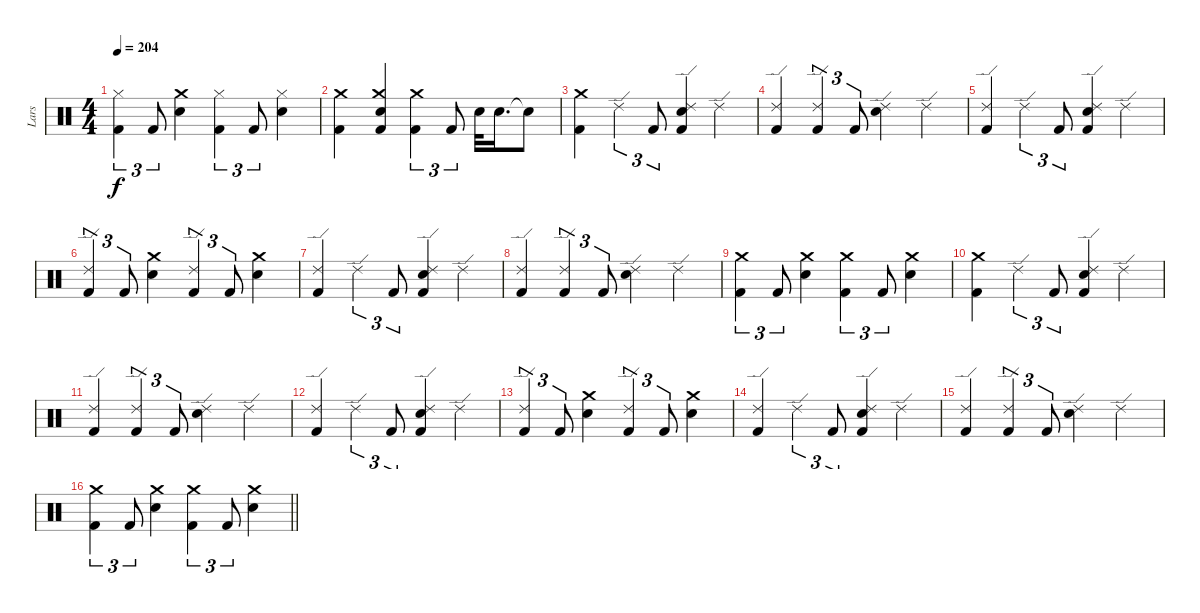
\track ("Lars" "Lars") {instrument percussion}
\staff {score}
\articulation defaults
\ts (4 4)
\tempo 204
\clef neutral
\ks c
("Kick (hit) 2" "Hi-Hat (closed)").4{tu (3 2) dy f} "Kick (hit) 2".8{tu (3 2)} ("Crash medium (hit)" "Snare (hit) 2").4 ("Kick (hit) 2" "Hi-Hat (closed)").4{tu (3 2)} "Kick (hit) 2".8{tu (3 2)} ("Snare (hit) 2" "Hi-Hat (closed)").4 |
("Kick (hit) 2" "Crash medium (hit)").4 ("Kick (hit) 2" "Snare (hit) 2" "Crash medium (hit)").4 ("Kick (hit) 2" "Crash medium (hit)").4{tu (3 2)} "Kick (hit) 2".8{tu (3 2)} "Snare (hit) 2".32 "Snare (hit) 2".16{d} "Snare (hit)"{t}.8 |
("Kick (hit) 2" "Crash medium (hit)").4 "Ride (edge) 2".4{tu (3 2)} "Kick (hit) 2".8{tu (3 2)} ("Kick (hit) 2" "Snare (hit) 2" "Ride (edge) 2").4 "Ride (edge) 2".4 |
("Kick (hit) 2" "Ride (edge) 2").4 ("Ride (edge) 2" "Kick (hit) 2").4{tu (3 2)} "Kick (hit) 2".8{tu (3 2)} ("Snare (hit) 2" "Ride (edge) 2").4 "Ride (edge) 2".4 |
("Kick (hit) 2" "Ride (edge) 2").4 "Ride (edge) 2".4{tu (3 2)} "Kick (hit) 2".8{tu (3 2)} ("Ride (edge) 2" "Snare (hit) 2" "Kick (hit) 2").4 "Ride (edge) 2".4 |
("Ride (edge) 2" "Kick (hit) 2").4{tu (3 2)} "Kick (hit) 2".8{tu (3 2)} ("Snare (hit) 2" "Crash medium (hit)").4 ("Ride (edge) 2" "Kick (hit) 2").4{tu (3 2)} "Kick (hit) 2".8{tu (3 2)} ("Snare (hit) 2" "Crash medium (hit)").4 |
("Ride (edge) 2" "Kick (hit) 2").4 "Ride (edge) 2".4{tu (3 2)} "Kick (hit) 2".8{tu (3 2)} ("Ride (edge) 2" "Snare (hit) 2" "Kick (hit) 2").4 "Ride (edge) 2".4 |
("Kick (hit) 2" "Ride (edge) 2").4 ("Ride (edge) 2" "Kick (hit) 2").4{tu (3 2)} "Kick (hit) 2".8{tu (3 2)} ("Snare (hit) 2" "Ride (edge) 2").4 "Ride (edge) 2".4 |
("Kick (hit) 2" "Crash medium (hit)").4{tu (3 2)} "Kick (hit) 2".8{tu (3 2)} ("Snare (hit) 2" "Crash medium (hit)").4 ("Kick (hit) 2" "Crash medium (hit)").4{tu (3 2)} "Kick (hit) 2".8{tu (3 2)} ("Snare (hit) 2" "Crash medium (hit)").4 |
("Kick (hit) 2" "Crash medium (hit)").4 "Ride (edge) 2".4{tu (3 2)} "Kick (hit) 2".8{tu (3 2)} ("Kick (hit) 2" "Snare (hit) 2" "Ride (edge) 2").4 "Ride (edge) 2".4 |
("Kick (hit) 2" "Ride (edge) 2").4 ("Ride (edge) 2" "Kick (hit) 2").4{tu (3 2)} "Kick (hit) 2".8{tu (3 2)} ("Snare (hit) 2" "Ride (edge) 2").4 "Ride (edge) 2".4 |
("Kick (hit) 2" "Ride (edge) 2").4 "Ride (edge) 2".4{tu (3 2)} "Kick (hit) 2".8{tu (3 2)} ("Ride (edge) 2" "Snare (hit) 2" "Kick (hit) 2").4 "Ride (edge) 2".4 |
("Ride (edge) 2" "Kick (hit) 2").4{tu (3 2)} "Kick (hit) 2".8{tu (3 2)} ("Snare (hit) 2" "Crash medium (hit)").4 ("Ride (edge) 2" "Kick (hit) 2").4{tu (3 2)} "Kick (hit) 2".8{tu (3 2)} ("Snare (hit) 2" "Crash medium (hit)").4 |
("Ride (edge) 2" "Kick (hit) 2").4 "Ride (edge) 2".4{tu (3 2)} "Kick (hit) 2".8{tu (3 2)} ("Ride (edge) 2" "Snare (hit) 2" "Kick (hit) 2").4 "Ride (edge) 2".4 |
("Kick (hit) 2" "Ride (edge) 2").4 ("Ride (edge) 2" "Kick (hit) 2").4{tu (3 2)} "Kick (hit) 2".8{tu (3 2)} ("Snare (hit) 2" "Ride (edge) 2").4 "Ride (edge) 2".4 |
\barLineRight lightlight
("Kick (hit) 2" "Crash medium (hit)").4{tu (3 2)} "Kick (hit) 2".8{tu (3 2)} ("Snare (hit) 2" "Crash medium (hit)").4 ("Kick (hit) 2" "Crash medium (hit)").4{tu (3 2)} "Kick (hit) 2".8{tu (3 2)} ("Snare (hit) 2" "Crash medium (hit)").4
